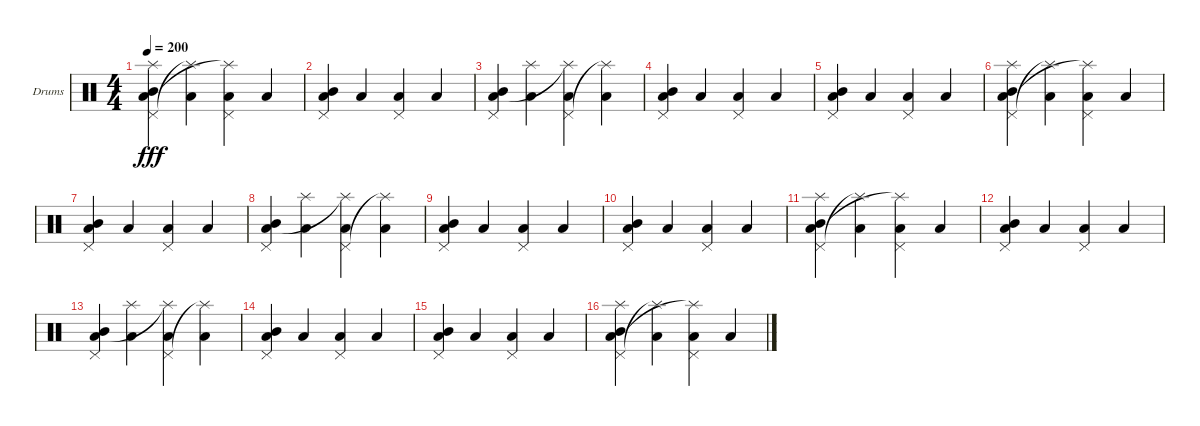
\defaultSystemsLayout 4
\bracketExtendMode groupsimilarinstruments
\firstSystemTrackNameOrientation horizontal
\otherSystemsTrackNameOrientation horizontal
\track ("Drumkit" "Drums") {instrument percussion}
\staff {score}
\articulation defaults
\ts (4 4)
\tempo 200
\clef neutral
\ks c
("Mid Tom (hit)" "Pedal Hi-Hat (hit)" "Low Tom (hit)" "Splash (hit)").4{dy fff} ("Low Tom (hit)" "Splash (hit)"{t}).4 ("Low Tom (hit)" "Pedal Hi-Hat (hit)" "Splash (hit)"{t}).4 "Low Tom (hit)".4 |
("Mid Tom (hit)" "Pedal Hi-Hat (hit)" "Low Tom (hit)").4 "Low Tom (hit)".4 ("Low Tom (hit)" "Pedal Hi-Hat (hit)").4 "Low Tom (hit)".4 |
("Mid Tom (hit)" "Pedal Hi-Hat (hit)" "Low Tom (hit)").4 ("Low Tom (hit)" "Splash (hit)").4 ("Low Tom (hit)" "Pedal Hi-Hat (hit)" "Splash (hit)"{t}).4 ("Low Tom (hit)" "Splash (hit)"{t}).4 |
("Mid Tom (hit)" "Pedal Hi-Hat (hit)" "Low Tom (hit)").4 "Low Tom (hit)".4 ("Low Tom (hit)" "Pedal Hi-Hat (hit)").4 "Low Tom (hit)".4 |
("Mid Tom (hit)" "Pedal Hi-Hat (hit)" "Low Tom (hit)").4 "Low Tom (hit)".4 ("Low Tom (hit)" "Pedal Hi-Hat (hit)").4 "Low Tom (hit)".4 |
("Mid Tom (hit)" "Pedal Hi-Hat (hit)" "Low Tom (hit)" "Splash (hit)").4 ("Low Tom (hit)" "Splash (hit)"{t}).4 ("Low Tom (hit)" "Pedal Hi-Hat (hit)" "Splash (hit)"{t}).4 "Low Tom (hit)".4 |
("Mid Tom (hit)" "Pedal Hi-Hat (hit)" "Low Tom (hit)").4 "Low Tom (hit)".4 ("Low Tom (hit)" "Pedal Hi-Hat (hit)").4 "Low Tom (hit)".4 |
("Mid Tom (hit)" "Pedal Hi-Hat (hit)" "Low Tom (hit)").4 ("Low Tom (hit)" "Splash (hit)").4 ("Low Tom (hit)" "Pedal Hi-Hat (hit)" "Splash (hit)"{t}).4 ("Low Tom (hit)" "Splash (hit)"{t}).4 |
("Mid Tom (hit)" "Pedal Hi-Hat (hit)" "Low Tom (hit)").4 "Low Tom (hit)".4 ("Low Tom (hit)" "Pedal Hi-Hat (hit)").4 "Low Tom (hit)".4 |
("Mid Tom (hit)" "Pedal Hi-Hat (hit)" "Low Tom (hit)").4 "Low Tom (hit)".4 ("Low Tom (hit)" "Pedal Hi-Hat (hit)").4 "Low Tom (hit)".4 |
("Mid Tom (hit)" "Pedal Hi-Hat (hit)" "Low Tom (hit)" "Splash (hit)").4 ("Low Tom (hit)" "Splash (hit)"{t}).4 ("Low Tom (hit)" "Pedal Hi-Hat (hit)" "Splash (hit)"{t}).4 "Low Tom (hit)".4 |
("Mid Tom (hit)" "Pedal Hi-Hat (hit)" "Low Tom (hit)").4 "Low Tom (hit)".4 ("Low Tom (hit)" "Pedal Hi-Hat (hit)").4 "Low Tom (hit)".4 |
("Mid Tom (hit)" "Pedal Hi-Hat (hit)" "Low Tom (hit)").4 ("Low Tom (hit)" "Splash (hit)").4 ("Low Tom (hit)" "Pedal Hi-Hat (hit)" "Splash (hit)"{t}).4 ("Low Tom (hit)" "Splash (hit)"{t}).4 |
("Mid Tom (hit)" "Pedal Hi-Hat (hit)" "Low Tom (hit)").4 "Low Tom (hit)".4 ("Low Tom (hit)" "Pedal Hi-Hat (hit)").4 "Low Tom (hit)".4 |
("Mid Tom (hit)" "Pedal Hi-Hat (hit)" "Low Tom (hit)").4 "Low Tom (hit)".4 ("Low Tom (hit)" "Pedal Hi-Hat (hit)").4 "Low Tom (hit)".4 |
("Mid Tom (hit)" "Pedal Hi-Hat (hit)" "Low Tom (hit)" "Splash (hit)").4 ("Low Tom (hit)" "Splash (hit)"{t}).4 ("Low Tom (hit)" "Pedal Hi-Hat (hit)" "Splash (hit)"{t}).4 "Low Tom (hit)".4
